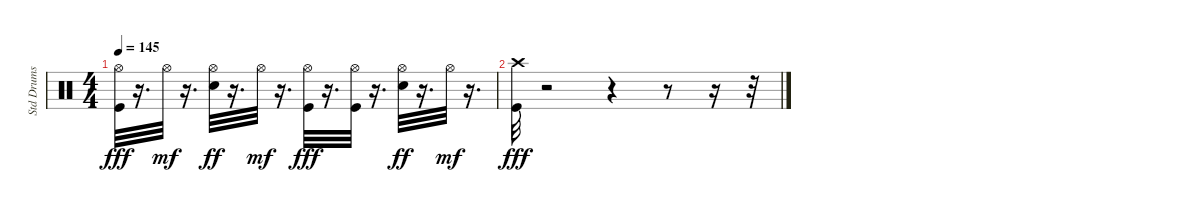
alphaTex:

\track ("Std Drums" "Std Drums") {instrument percussion}
\staff {score}
\articulation defaults
\ts (4 4)
\tempo 145
\clef neutral
\ks c
("Kick (hit)" "Hi-Hat (open)").32{dy fff} r.16{d} "Hi-Hat (open)".32{dy mf} r.16{d} ("Snare (hit) 2" "Hi-Hat (open)").32{dy ff} r.16{d} "Hi-Hat (open)".32{dy mf} r.16{d} ("Hi-Hat (open)" "Kick (hit)").32{dy fff} r.16{d} ("Hi-Hat (open)" "Kick (hit)").32 r.16{d} ("Snare (hit) 2" "Hi-Hat (open)").32{dy ff} r.16{d} "Hi-Hat (open)".32{dy mf} r.16{d} |
("Kick (hit)" "Crash high (hit)").32{dy fff} r.2 r.4 r.8 r.16 r.32
